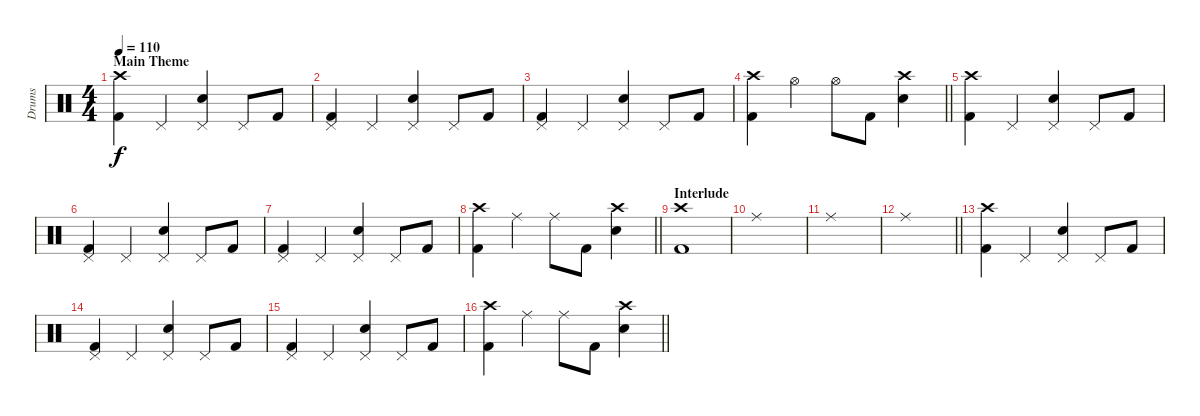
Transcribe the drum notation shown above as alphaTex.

\track ("Drums" "Drums") {instrument percussion}
\staff {score}
\articulation defaults
\ts (4 4)
\section ("" "Main Theme")
\tempo 110
\clef neutral
\ks c
("Crash high (hit)" "Kick (hit) 2").4{dy f} "Pedal Hi-Hat (hit)".4 ("Pedal Hi-Hat (hit)" "Snare (hit) 2").4 "Pedal Hi-Hat (hit)".8 "Kick (hit) 2".8 |
("Pedal Hi-Hat (hit)" "Kick (hit) 2").4 "Pedal Hi-Hat (hit)".4 ("Pedal Hi-Hat (hit)" "Snare (hit) 2").4 "Pedal Hi-Hat (hit)".8 "Kick (hit) 2".8 |
("Pedal Hi-Hat (hit)" "Kick (hit) 2").4 "Pedal Hi-Hat (hit)".4 ("Pedal Hi-Hat (hit)" "Snare (hit) 2").4 "Pedal Hi-Hat (hit)".8 "Kick (hit) 2".8 |
\barLineRight lightlight
("Crash high (hit)" "Kick (hit) 2").4 "Hi-Hat (open)".4 "Hi-Hat (open)".8 "Kick (hit) 2".8 ("Crash high (hit)" "Snare (hit) 2").4 |
\section ("" "")
("Crash high (hit)" "Kick (hit) 2").4 "Pedal Hi-Hat (hit)".4 ("Pedal Hi-Hat (hit)" "Snare (hit) 2").4 "Pedal Hi-Hat (hit)".8 "Kick (hit) 2".8 |
("Pedal Hi-Hat (hit)" "Kick (hit) 2").4 "Pedal Hi-Hat (hit)".4 ("Pedal Hi-Hat (hit)" "Snare (hit) 2").4 "Pedal Hi-Hat (hit)".8 "Kick (hit) 2".8 |
("Pedal Hi-Hat (hit)" "Kick (hit) 2").4 "Pedal Hi-Hat (hit)".4 ("Pedal Hi-Hat (hit)" "Snare (hit) 2").4 "Pedal Hi-Hat (hit)".8 "Kick (hit) 2".8 |
\barLineRight lightlight
("Crash high (hit)" "Kick (hit) 2").4 "Ride (middle)".4 "Ride (middle)".8 "Kick (hit) 2".8 ("Crash high (hit)" "Snare (hit) 2").4 |
\section ("" "Interlude")
("Crash high (hit)" "Kick (hit) 2").1 |
"Ride (middle)".1 |
"Ride (middle)".1 |
\barLineRight lightlight "Ride (middle)".1
|
\section ("" "")
("Crash high (hit)" "Kick (hit) 2").4 "Pedal Hi-Hat (hit)".4 ("Pedal Hi-Hat (hit)" "Snare (hit) 2").4 "Pedal Hi-Hat (hit)".8 "Kick (hit) 2".8 |
("Pedal Hi-Hat (hit)" "Kick (hit) 2").4 "Pedal Hi-Hat (hit)".4 ("Pedal Hi-Hat (hit)" "Snare (hit) 2").4 "Pedal Hi-Hat (hit)".8 "Kick (hit) 2".8 |
("Pedal Hi-Hat (hit)" "Kick (hit) 2").4 "Pedal Hi-Hat (hit)".4 ("Pedal Hi-Hat (hit)" "Snare (hit) 2").4 "Pedal Hi-Hat (hit)".8 "Kick (hit) 2".8 |
\barLineRight lightlight
("Crash high (hit)" "Kick (hit) 2").4 "Ride (middle)".4 "Ride (middle)".8 "Kick (hit) 2".8 ("Crash high (hit)" "Snare (hit) 2").4
